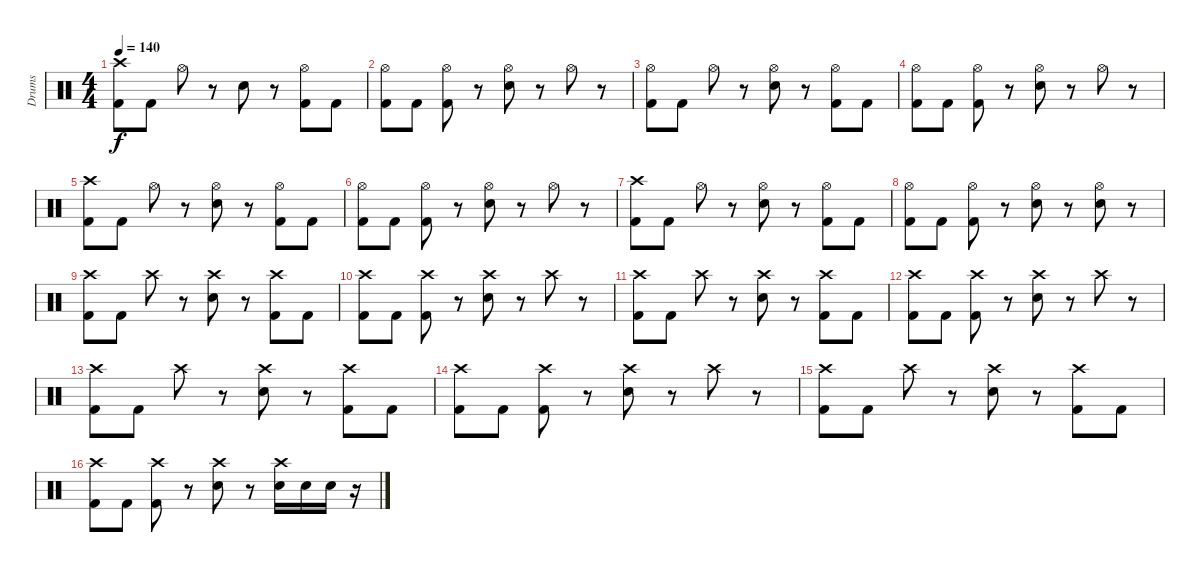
\track ("Drums" "Drums") {instrument percussion}
\staff {score}
\articulation defaults
\ts (4 4)
\tempo 140
\clef neutral
\ks c
("Crash high (hit)" "Kick (hit) 2").8{dy f} "Kick (hit) 2".8 "Hi-Hat (open)".8 r.8 "Electric Snare (hit)".8 r.8 ("Hi-Hat (open)" "Kick (hit) 2").8 "Kick (hit) 2".8 |
("Hi-Hat (open)" "Kick (hit) 2").8 "Kick (hit) 2".8 ("Hi-Hat (open)" "Kick (hit) 2").8 r.8 ("Hi-Hat (open)" "Electric Snare (hit)").8 r.8 "Hi-Hat (open)".8 r.8 |
("Hi-Hat (open)" "Kick (hit) 2").8 "Kick (hit) 2".8 "Hi-Hat (open)".8 r.8 ("Hi-Hat (open)" "Electric Snare (hit)").8 r.8 ("Hi-Hat (open)" "Kick (hit) 2").8 "Kick (hit) 2".8 |
("Hi-Hat (open)" "Kick (hit) 2").8 "Kick (hit) 2".8 ("Hi-Hat (open)" "Kick (hit) 2").8 r.8 ("Hi-Hat (open)" "Electric Snare (hit)").8 r.8 "Hi-Hat (open)".8 r.8 |
("Crash high (hit)" "Kick (hit) 2").8 "Kick (hit) 2".8 "Hi-Hat (open)".8 r.8 ("Hi-Hat (open)" "Electric Snare (hit)").8 r.8 ("Hi-Hat (open)" "Kick (hit) 2").8 "Kick (hit) 2".8 |
("Hi-Hat (open)" "Kick (hit) 2").8 "Kick (hit) 2".8 ("Hi-Hat (open)" "Kick (hit) 2").8 r.8 ("Hi-Hat (open)" "Electric Snare (hit)").8 r.8 "Hi-Hat (open)".8 r.8 |
("Crash high (hit)" "Kick (hit) 2").8 "Kick (hit) 2".8 "Hi-Hat (open)".8 r.8 ("Hi-Hat (open)" "Electric Snare (hit)").8 r.8 ("Hi-Hat (open)" "Kick (hit) 2").8 "Kick (hit) 2".8 |
("Hi-Hat (open)" "Kick (hit) 2").8 "Kick (hit) 2".8 ("Hi-Hat (open)" "Kick (hit) 2").8 r.8 ("Hi-Hat (open)" "Electric Snare (hit)").8 r.8 ("Hi-Hat (open)" "Electric Snare (hit)").8 r.8 |
("Crash high (hit)" "Kick (hit) 2").8 "Kick (hit) 2".8 "Crash high (hit)".8 r.8 ("Crash high (hit)" "Electric Snare (hit)").8 r.8 ("Crash high (hit)" "Kick (hit) 2").8 "Kick (hit) 2".8 |
("Crash high (hit)" "Kick (hit) 2").8 "Kick (hit) 2".8 ("Crash high (hit)" "Kick (hit) 2").8 r.8 ("Crash high (hit)" "Electric Snare (hit)").8 r.8 "Crash high (hit)".8 r.8 |
("Crash high (hit)" "Kick (hit) 2").8 "Kick (hit) 2".8 "Crash high (hit)".8 r.8 ("Crash high (hit)" "Electric Snare (hit)").8 r.8 ("Crash high (hit)" "Kick (hit) 2").8 "Kick (hit) 2".8 |
("Crash high (hit)" "Kick (hit) 2").8 "Kick (hit) 2".8 ("Crash high (hit)" "Kick (hit) 2").8 r.8 ("Crash high (hit)" "Electric Snare (hit)").8 r.8 "Crash high (hit)".8 r.8 |
("Crash high (hit)" "Kick (hit) 2").8 "Kick (hit) 2".8 "Crash high (hit)".8 r.8 ("Crash high (hit)" "Electric Snare (hit)").8 r.8 ("Crash high (hit)" "Kick (hit) 2").8 "Kick (hit) 2".8 |
("Crash high (hit)" "Kick (hit) 2").8 "Kick (hit) 2".8 ("Crash high (hit)" "Kick (hit) 2").8 r.8 ("Crash high (hit)" "Electric Snare (hit)").8 r.8 "Crash high (hit)".8 r.8 |
("Crash high (hit)" "Kick (hit) 2").8 "Kick (hit) 2".8 "Crash high (hit)".8 r.8 ("Crash high (hit)" "Electric Snare (hit)").8 r.8 ("Crash high (hit)" "Kick (hit) 2").8 "Kick (hit) 2".8 |
("Crash high (hit)" "Kick (hit) 2").8 "Kick (hit) 2".8 ("Crash high (hit)" "Kick (hit) 2").8 r.8 ("Crash high (hit)" "Electric Snare (hit)").8 r.8 ("Crash high (hit)" "Electric Snare (hit)").16 "Electric Snare (hit)".16 "Electric Snare (hit)".16 r.16
